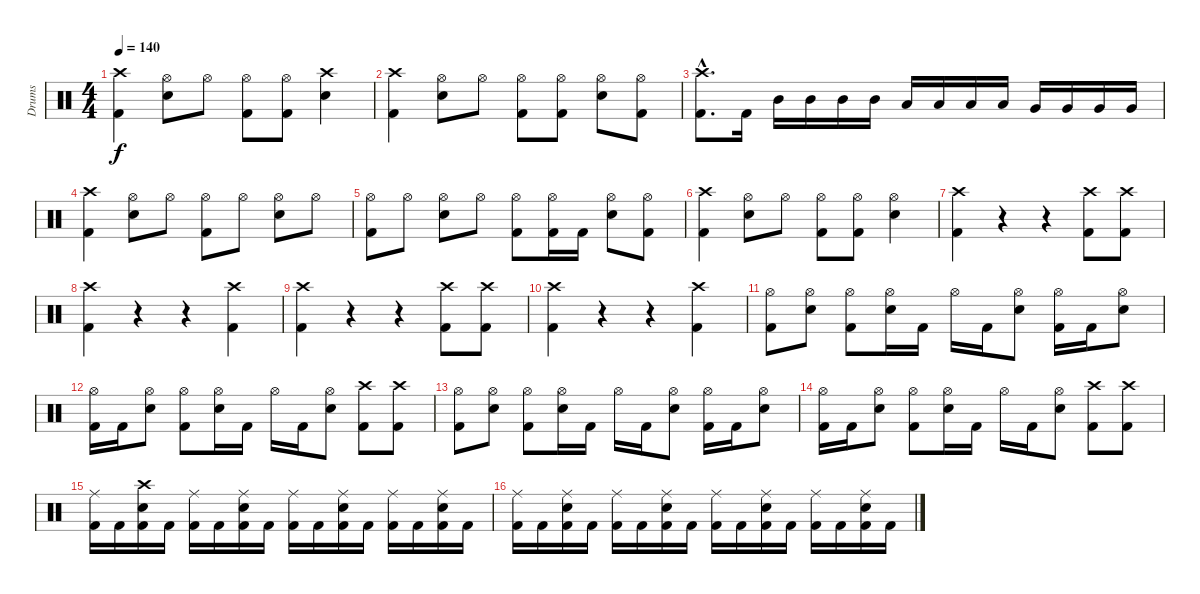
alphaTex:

\track ("Drums" "Drums") {instrument percussion}
\staff {score}
\articulation defaults
\ts (4 4)
\tempo 140
\clef neutral
\ks c
("Crash high (hit)" "Kick (hit) 2").4{dy f} ("Hi-Hat (open)" "Electric Snare (hit)").8 "Hi-Hat (open)".8 ("Hi-Hat (open)" "Kick (hit) 2").8 ("Hi-Hat (open)" "Kick (hit) 2").8 ("Crash high (hit)" "Electric Snare (hit)").4 |
("Crash high (hit)" "Kick (hit) 2").4 ("Hi-Hat (open)" "Electric Snare (hit)").8 "Hi-Hat (open)".8 ("Hi-Hat (open)" "Kick (hit) 2").8 ("Hi-Hat (open)" "Kick (hit) 2").8 ("Hi-Hat (open)" "Electric Snare (hit)").8 ("Hi-Hat (open)" "Kick (hit) 2").8 |
("Crash high (hit)"{hac} "Kick (hit) 2"{hac}).8{d} "Kick (hit) 2".16 "Mid Tom (hit)".16 "Mid Tom (hit)".16 "Mid Tom (hit)".16 "Mid Tom (hit)".16 "Low Tom (hit)".16 "Low Tom (hit)".16 "Low Tom (hit)".16 "Low Tom (hit)".16 "Very Low Tom (hit)".16 "Very Low Tom (hit)".16 "Very Low Tom (hit)".16 "Very Low Tom (hit)".16 |
("Crash high (hit)" "Kick (hit) 2").4 ("Hi-Hat (open)" "Electric Snare (hit)").8 "Hi-Hat (open)".8 ("Hi-Hat (open)" "Kick (hit) 2").8 "Hi-Hat (open)".8 ("Hi-Hat (open)" "Electric Snare (hit)").8 "Hi-Hat (open)".8 |
("Hi-Hat (open)" "Kick (hit) 2").8 "Hi-Hat (open)".8 ("Hi-Hat (open)" "Electric Snare (hit)").8 "Hi-Hat (open)".8 ("Hi-Hat (open)" "Kick (hit) 2").8 ("Hi-Hat (open)" "Kick (hit) 2").16 "Kick (hit) 2".16 ("Hi-Hat (open)" "Electric Snare (hit)").8 ("Hi-Hat (open)" "Kick (hit) 2").8 |
("Crash high (hit)" "Kick (hit) 2").4 ("Hi-Hat (open)" "Electric Snare (hit)").8 "Hi-Hat (open)".8 ("Hi-Hat (open)" "Kick (hit) 2").8 ("Hi-Hat (open)" "Kick (hit) 2").8 ("Hi-Hat (open)" "Electric Snare (hit)").4 |
("Crash high (hit)" "Kick (hit) 2").4 r.4 r.4 ("Crash high (hit)" "Kick (hit) 2").8 ("Crash high (hit)" "Kick (hit) 2").8 |
("Crash high (hit)" "Kick (hit) 2").4 r.4 r.4 ("Crash high (hit)" "Kick (hit) 2").4 |
("Crash high (hit)" "Kick (hit) 2").4 r.4 r.4 ("Crash high (hit)" "Kick (hit) 2").8 ("Crash high (hit)" "Kick (hit) 2").8 |
("Crash high (hit)" "Kick (hit) 2").4 r.4 r.4 ("Crash high (hit)" "Kick (hit) 2").4 |
("Hi-Hat (open)" "Kick (hit) 2").8 ("Hi-Hat (open)" "Electric Snare (hit)").8 ("Hi-Hat (open)" "Kick (hit) 2").8 ("Hi-Hat (open)" "Electric Snare (hit)").16 "Kick (hit) 2".16 "Hi-Hat (open)".16 "Kick (hit) 2".16 ("Hi-Hat (open)" "Electric Snare (hit)").8 ("Hi-Hat (open)" "Kick (hit) 2").16 "Kick (hit) 2".16 ("Hi-Hat (open)" "Electric Snare (hit)").8 |
("Hi-Hat (open)" "Kick (hit) 2").16 "Kick (hit) 2".16 ("Hi-Hat (open)" "Electric Snare (hit)").8 ("Hi-Hat (open)" "Kick (hit) 2").8 ("Hi-Hat (open)" "Electric Snare (hit)").16 "Kick (hit) 2".16 "Hi-Hat (open)".16 "Kick (hit) 2".16 ("Hi-Hat (open)" "Electric Snare (hit)").8 ("Crash high (hit)" "Kick (hit) 2").8 ("Crash high (hit)" "Kick (hit) 2").8 |
("Hi-Hat (open)" "Kick (hit) 2").8 ("Hi-Hat (open)" "Electric Snare (hit)").8 ("Hi-Hat (open)" "Kick (hit) 2").8 ("Hi-Hat (open)" "Electric Snare (hit)").16 "Kick (hit) 2".16 "Hi-Hat (open)".16 "Kick (hit) 2".16 ("Hi-Hat (open)" "Electric Snare (hit)").8 ("Hi-Hat (open)" "Kick (hit) 2").16 "Kick (hit) 2".16 ("Hi-Hat (open)" "Electric Snare (hit)").8 |
("Hi-Hat (open)" "Kick (hit) 2").16 "Kick (hit) 2".16 ("Hi-Hat (open)" "Electric Snare (hit)").8 ("Hi-Hat (open)" "Kick (hit) 2").8 ("Hi-Hat (open)" "Electric Snare (hit)").16 "Kick (hit) 2".16 "Hi-Hat (open)".16 "Kick (hit) 2".16 ("Hi-Hat (open)" "Electric Snare (hit)").8 ("Crash high (hit)" "Kick (hit) 2").8 ("Crash high (hit)" "Kick (hit) 2").8 |
("Ride (middle)" "Kick (hit) 2").16 "Kick (hit) 2".16 ("Crash high (hit)" "Electric Snare (hit)" "Kick (hit) 2").16 "Kick (hit) 2".16 ("Ride (middle)" "Kick (hit) 2").16 "Kick (hit) 2".16 ("Ride (middle)" "Electric Snare (hit)" "Kick (hit) 2").16 "Kick (hit) 2".16 ("Ride (middle)" "Kick (hit) 2").16 "Kick (hit) 2".16 ("Ride (middle)" "Electric Snare (hit)" "Kick (hit) 2").16 "Kick (hit) 2".16 ("Ride (middle)" "Kick (hit) 2").16 "Kick (hit) 2".16 ("Ride (middle)" "Electric Snare (hit)" "Kick (hit) 2").16 "Kick (hit) 2".16 |
("Ride (middle)" "Kick (hit) 2").16 "Kick (hit) 2".16 ("Ride (middle)" "Electric Snare (hit)" "Kick (hit) 2").16 "Kick (hit) 2".16 ("Ride (middle)" "Kick (hit) 2").16 "Kick (hit) 2".16 ("Ride (middle)" "Electric Snare (hit)" "Kick (hit) 2").16 "Kick (hit) 2".16 ("Ride (middle)" "Kick (hit) 2").16 "Kick (hit) 2".16 ("Ride (middle)" "Electric Snare (hit)" "Kick (hit) 2").16 "Kick (hit) 2".16 ("Ride (middle)" "Kick (hit) 2").16 "Kick (hit) 2".16 ("Ride (middle)" "Electric Snare (hit)" "Kick (hit) 2").16 "Kick (hit) 2".16
